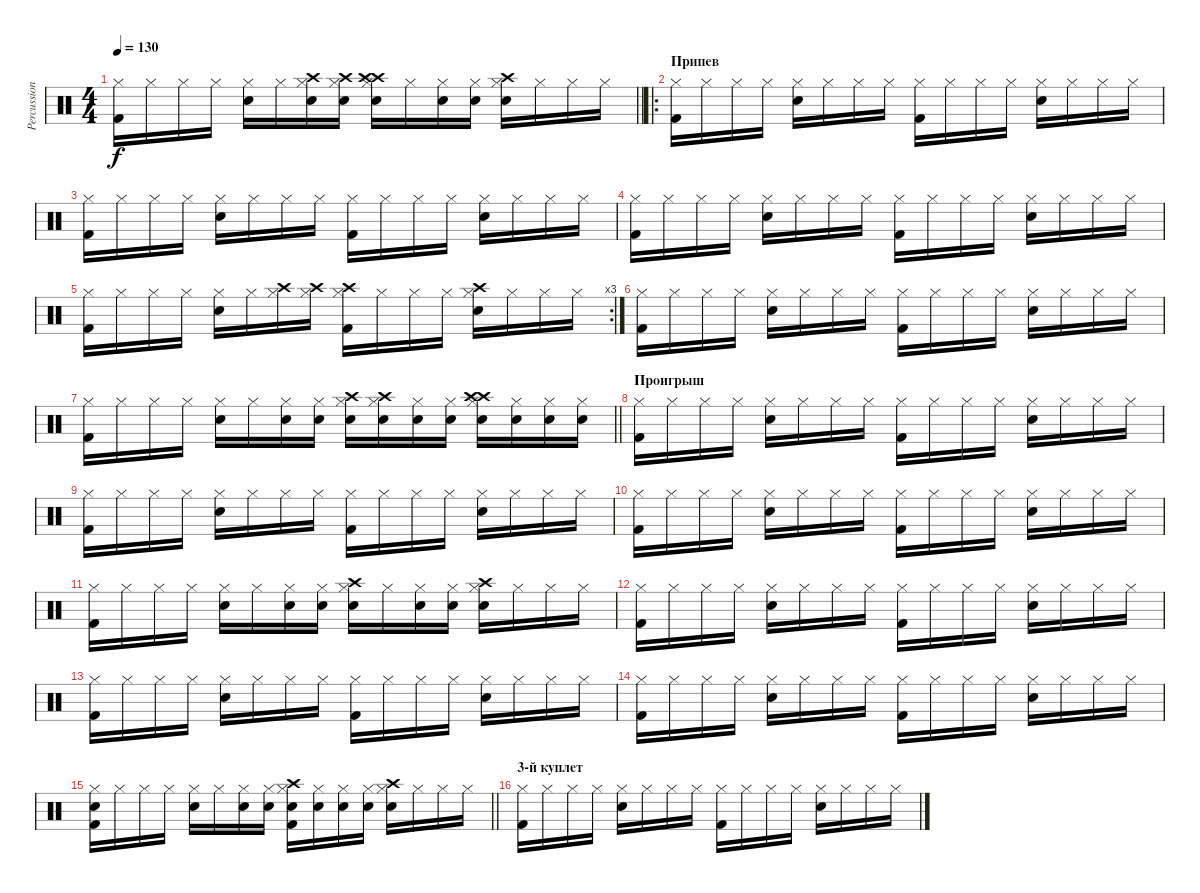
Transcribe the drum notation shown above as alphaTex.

\track ("Percussion" "Percussion") {instrument percussion}
\staff {score}
\articulation defaults
\ts (4 4)
\tempo 130
\clef neutral
\barLineRight lightlight
\ks c
("Hi-Hat (closed)" "Kick (hit) 2").16{dy f} "Hi-Hat (closed)".16 "Hi-Hat (closed)".16 "Hi-Hat (closed)".16 ("Hi-Hat (closed)" "Snare (hit) 2").16 "Hi-Hat (closed)".16 ("Hi-Hat (closed)" "Snare (hit) 2" "Crash high (hit)").16 ("Crash high (hit)" "Hi-Hat (closed)" "Snare (hit) 2").16 ("Crash high (hit)" "Crash high (hit)" "Hi-Hat (closed)" "Snare (hit) 2").16 "Hi-Hat (closed)".16 ("Hi-Hat (closed)" "Snare (hit) 2").16 ("Snare (hit) 2" "Hi-Hat (closed)").16 ("Crash high (hit)" "Snare (hit) 2" "Hi-Hat (closed)").16 "Hi-Hat (closed)".16 "Hi-Hat (closed)".16 "Hi-Hat (closed)".16 |
\ro
\section ("" "Припев")
("Kick (hit) 2" "Hi-Hat (closed)").16 "Hi-Hat (closed)".16 "Hi-Hat (closed)".16 "Hi-Hat (closed)".16 ("Snare (hit) 2" "Hi-Hat (closed)").16 "Hi-Hat (closed)".16 "Hi-Hat (closed)".16 "Hi-Hat (closed)".16 ("Kick (hit) 2" "Hi-Hat (closed)").16 "Hi-Hat (closed)".16 "Hi-Hat (closed)".16 "Hi-Hat (closed)".16 ("Snare (hit) 2" "Hi-Hat (closed)").16 "Hi-Hat (closed)".16 "Hi-Hat (closed)".16 "Hi-Hat (closed)".16 |
("Kick (hit) 2" "Hi-Hat (closed)").16 "Hi-Hat (closed)".16 "Hi-Hat (closed)".16 "Hi-Hat (closed)".16 ("Snare (hit) 2" "Hi-Hat (closed)").16 "Hi-Hat (closed)".16 "Hi-Hat (closed)".16 "Hi-Hat (closed)".16 ("Kick (hit) 2" "Hi-Hat (closed)").16 "Hi-Hat (closed)".16 "Hi-Hat (closed)".16 "Hi-Hat (closed)".16 ("Snare (hit) 2" "Hi-Hat (closed)").16 "Hi-Hat (closed)".16 "Hi-Hat (closed)".16 "Hi-Hat (closed)".16 |
("Kick (hit) 2" "Hi-Hat (closed)").16 "Hi-Hat (closed)".16 "Hi-Hat (closed)".16 "Hi-Hat (closed)".16 ("Snare (hit) 2" "Hi-Hat (closed)").16 "Hi-Hat (closed)".16 "Hi-Hat (closed)".16 "Hi-Hat (closed)".16 ("Kick (hit) 2" "Hi-Hat (closed)").16 "Hi-Hat (closed)".16 "Hi-Hat (closed)".16 "Hi-Hat (closed)".16 ("Snare (hit) 2" "Hi-Hat (closed)").16 "Hi-Hat (closed)".16 "Hi-Hat (closed)".16 "Hi-Hat (closed)".16 |
\rc 3
("Kick (hit) 2" "Hi-Hat (closed)").16 "Hi-Hat (closed)".16 "Hi-Hat (closed)".16 "Hi-Hat (closed)".16 ("Snare (hit) 2" "Hi-Hat (closed)").16 "Hi-Hat (closed)".16 ("Crash high (hit)" "Hi-Hat (closed)").16 ("Hi-Hat (closed)" "Crash high (hit)").16 ("Hi-Hat (closed)" "Crash high (hit)" "Kick (hit) 2").16 "Hi-Hat (closed)".16 "Hi-Hat (closed)".16 "Hi-Hat (closed)".16 ("Snare (hit) 2" "Hi-Hat (closed)" "Crash high (hit)").16 "Hi-Hat (closed)".16 "Hi-Hat (closed)".16 "Hi-Hat (closed)".16 |
("Hi-Hat (closed)" "Kick (hit) 2").16 "Hi-Hat (closed)".16 "Hi-Hat (closed)".16 "Hi-Hat (closed)".16 ("Snare (hit) 2" "Hi-Hat (closed)").16 "Hi-Hat (closed)".16 "Hi-Hat (closed)".16 "Hi-Hat (closed)".16 ("Kick (hit) 2" "Hi-Hat (closed)").16 "Hi-Hat (closed)".16 "Hi-Hat (closed)".16 "Hi-Hat (closed)".16 ("Hi-Hat (closed)" "Snare (hit) 2").16 "Hi-Hat (closed)".16 "Hi-Hat (closed)".16 "Hi-Hat (closed)".16 |
\barLineRight lightlight
("Hi-Hat (closed)" "Kick (hit) 2").16 "Hi-Hat (closed)".16 "Hi-Hat (closed)".16 "Hi-Hat (closed)".16 ("Snare (hit) 2" "Hi-Hat (closed)").16 "Hi-Hat (closed)".16 ("Snare (hit) 2" "Hi-Hat (closed)").16 ("Hi-Hat (closed)" "Snare (hit) 2").16 ("Hi-Hat (closed)" "Snare (hit) 2" "Crash high (hit)").16 ("Hi-Hat (closed)" "Snare (hit) 2" "Crash high (hit)").16 ("Snare (hit) 2" "Hi-Hat (closed)").16 ("Snare (hit) 2" "Hi-Hat (closed)").16 ("Crash high (hit)" "Hi-Hat (closed)" "Crash high (hit)" "Snare (hit) 2").16 ("Hi-Hat (closed)" "Snare (hit) 2").16 ("Snare (hit) 2" "Hi-Hat (closed)").16 ("Hi-Hat (closed)" "Snare (hit) 2").16 |
\section ("" "Проигрыш")
("Hi-Hat (closed)" "Kick (hit) 2").16 "Hi-Hat (closed)".16 "Hi-Hat (closed)".16 "Hi-Hat (closed)".16 ("Snare (hit) 2" "Hi-Hat (closed)").16 "Hi-Hat (closed)".16 "Hi-Hat (closed)".16 "Hi-Hat (closed)".16 ("Hi-Hat (closed)" "Kick (hit) 2").16 "Hi-Hat (closed)".16 "Hi-Hat (closed)".16 "Hi-Hat (closed)".16 ("Snare (hit) 2" "Hi-Hat (closed)").16 "Hi-Hat (closed)".16 "Hi-Hat (closed)".16 "Hi-Hat (closed)".16 |
("Hi-Hat (closed)" "Kick (hit) 2").16 "Hi-Hat (closed)".16 "Hi-Hat (closed)".16 "Hi-Hat (closed)".16 ("Snare (hit) 2" "Hi-Hat (closed)").16 "Hi-Hat (closed)".16 "Hi-Hat (closed)".16 "Hi-Hat (closed)".16 ("Hi-Hat (closed)" "Kick (hit) 2").16 "Hi-Hat (closed)".16 "Hi-Hat (closed)".16 "Hi-Hat (closed)".16 ("Snare (hit) 2" "Hi-Hat (closed)").16 "Hi-Hat (closed)".16 "Hi-Hat (closed)".16 "Hi-Hat (closed)".16 |
("Kick (hit) 2" "Hi-Hat (closed)").16 "Hi-Hat (closed)".16 "Hi-Hat (closed)".16 "Hi-Hat (closed)".16 ("Hi-Hat (closed)" "Snare (hit) 2").16 "Hi-Hat (closed)".16 "Hi-Hat (closed)".16 "Hi-Hat (closed)".16 ("Kick (hit) 2" "Hi-Hat (closed)").16 "Hi-Hat (closed)".16 "Hi-Hat (closed)".16 "Hi-Hat (closed)".16 ("Hi-Hat (closed)" "Snare (hit) 2").16 "Hi-Hat (closed)".16 "Hi-Hat (closed)".16 "Hi-Hat (closed)".16 |
("Hi-Hat (closed)" "Kick (hit) 2").16 "Hi-Hat (closed)".16 "Hi-Hat (closed)".16 "Hi-Hat (closed)".16 ("Snare (hit) 2" "Hi-Hat (closed)").16 "Hi-Hat (closed)".16 ("Snare (hit) 2" "Hi-Hat (closed)").16 ("Hi-Hat (closed)" "Snare (hit) 2").16 ("Hi-Hat (closed)" "Snare (hit) 2" "Crash high (hit)").16 "Hi-Hat (closed)".16 ("Hi-Hat (closed)" "Snare (hit) 2").16 ("Snare (hit) 2" "Hi-Hat (closed)").16 ("Snare (hit) 2" "Hi-Hat (closed)" "Crash high (hit)").16 "Hi-Hat (closed)".16 "Hi-Hat (closed)".16 "Hi-Hat (closed)".16 |
("Hi-Hat (closed)" "Kick (hit) 2").16 "Hi-Hat (closed)".16 "Hi-Hat (closed)".16 "Hi-Hat (closed)".16 ("Snare (hit) 2" "Hi-Hat (closed)").16 "Hi-Hat (closed)".16 "Hi-Hat (closed)".16 "Hi-Hat (closed)".16 ("Kick (hit) 2" "Hi-Hat (closed)").16 "Hi-Hat (closed)".16 "Hi-Hat (closed)".16 "Hi-Hat (closed)".16 ("Hi-Hat (closed)" "Snare (hit) 2").16 "Hi-Hat (closed)".16 "Hi-Hat (closed)".16 "Hi-Hat (closed)".16 |
("Hi-Hat (closed)" "Kick (hit) 2").16 "Hi-Hat (closed)".16 "Hi-Hat (closed)".16 "Hi-Hat (closed)".16 ("Snare (hit) 2" "Hi-Hat (closed)").16 "Hi-Hat (closed)".16 "Hi-Hat (closed)".16 "Hi-Hat (closed)".16 ("Kick (hit) 2" "Hi-Hat (closed)").16 "Hi-Hat (closed)".16 "Hi-Hat (closed)".16 "Hi-Hat (closed)".16 ("Hi-Hat (closed)" "Snare (hit) 2").16 "Hi-Hat (closed)".16 "Hi-Hat (closed)".16 "Hi-Hat (closed)".16 |
("Hi-Hat (closed)" "Kick (hit) 2").16 "Hi-Hat (closed)".16 "Hi-Hat (closed)".16 "Hi-Hat (closed)".16 ("Snare (hit) 2" "Hi-Hat (closed)").16 "Hi-Hat (closed)".16 "Hi-Hat (closed)".16 "Hi-Hat (closed)".16 ("Kick (hit) 2" "Hi-Hat (closed)").16 "Hi-Hat (closed)".16 "Hi-Hat (closed)".16 "Hi-Hat (closed)".16 ("Hi-Hat (closed)" "Snare (hit) 2").16 "Hi-Hat (closed)".16 "Hi-Hat (closed)".16 "Hi-Hat (closed)".16 |
\barLineRight lightlight
("Kick (hit) 2" "Snare (hit) 2" "Hi-Hat (closed)").16 "Hi-Hat (closed)".16 "Hi-Hat (closed)".16 "Hi-Hat (closed)".16 ("Snare (hit) 2" "Hi-Hat (closed)").16 "Hi-Hat (closed)".16 ("Hi-Hat (closed)" "Snare (hit) 2").16 ("Hi-Hat (closed)" "Snare (hit) 2").16 ("Hi-Hat (closed)" "Kick (hit) 2" "Snare (hit) 2" "Crash high (hit)").16 ("Snare (hit) 2" "Hi-Hat (closed)").16 ("Snare (hit) 2" "Hi-Hat (closed)").16 ("Snare (hit) 2" "Hi-Hat (closed)").16 ("Snare (hit) 2" "Crash high (hit)" "Hi-Hat (closed)").16 "Hi-Hat (closed)".16 "Hi-Hat (closed)".16 "Hi-Hat (closed)".16 |
\section ("" "3-й куплет")
("Kick (hit) 2" "Hi-Hat (closed)").16 "Hi-Hat (closed)".16 "Hi-Hat (closed)".16 "Hi-Hat (closed)".16 ("Hi-Hat (closed)" "Snare (hit) 2").16 "Hi-Hat (closed)".16 "Hi-Hat (closed)".16 "Hi-Hat (closed)".16 ("Kick (hit) 2" "Hi-Hat (closed)").16 "Hi-Hat (closed)".16 "Hi-Hat (closed)".16 "Hi-Hat (closed)".16 ("Snare (hit) 2" "Hi-Hat (closed)").16 "Hi-Hat (closed)".16 "Hi-Hat (closed)".16 "Hi-Hat (closed)".16
